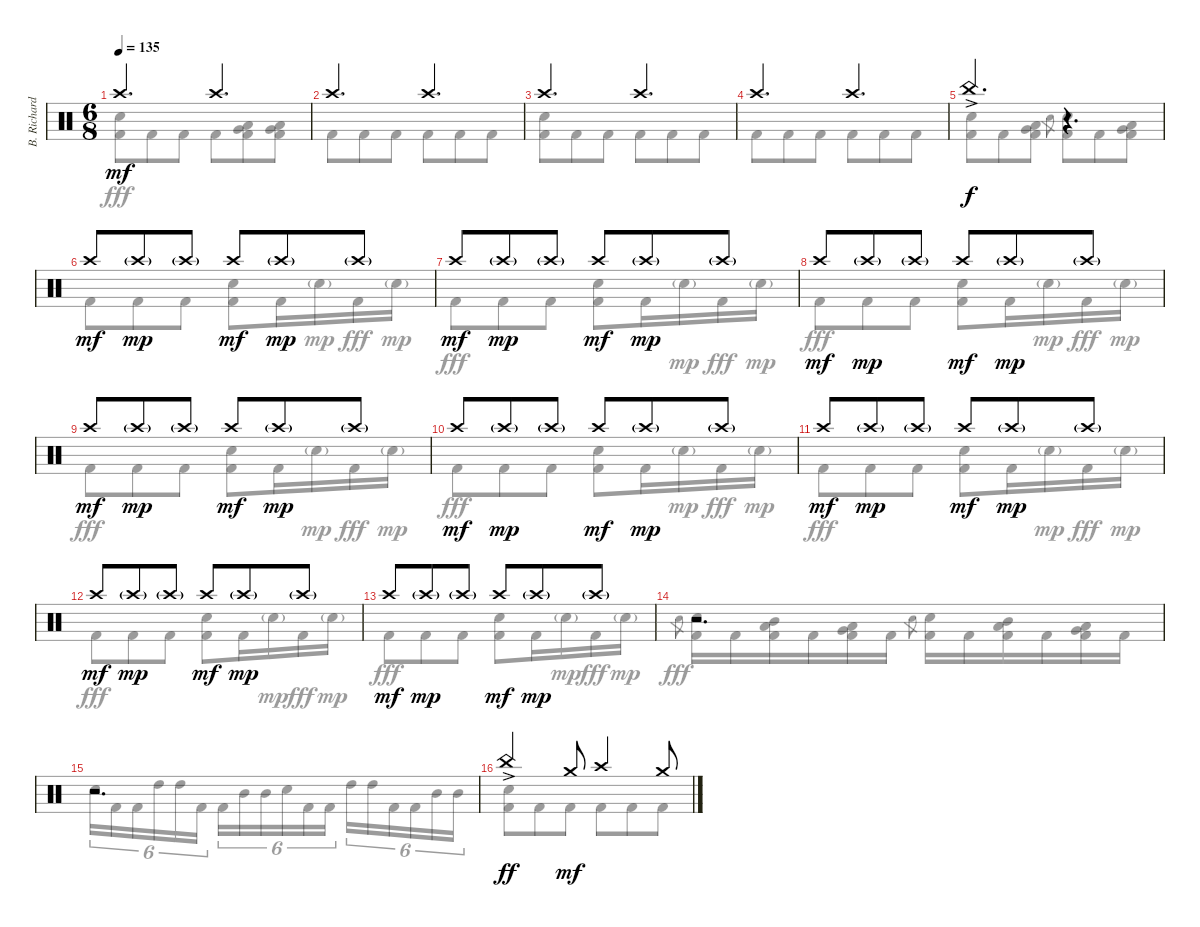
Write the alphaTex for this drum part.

\track ("B. Richardson Drums" "B. Richard") {instrument percussion}
\staff {score}
\articulation defaults
\voice
\ts (6 8)
\tempo 135
\clef neutral
\ks c "Crash high (hit)".4{d dy mf} "Crash high (hit)".4{d}
|
"Crash high (hit)".4{d} "Crash high (hit)".4{d} |
"Crash high (hit)".4{d} "Crash high (hit)".4{d} |
"Crash high (hit)".4{d} "Crash high (hit)".4{d} |
"China (hit)"{ac}.4{d dy f} r.4{d} |
"Crash high (hit)".8{dy mf} "Crash high (hit)"{g}.8{dy mp} "Crash high (hit)"{g}.8 "Crash high (hit)".8{dy mf} "Crash high (hit)"{g}.8{dy mp} "Crash high (hit)"{g}.8 |
"Crash high (hit)".8{dy mf} "Crash high (hit)"{g}.8{dy mp} "Crash high (hit)"{g}.8 "Crash high (hit)".8{dy mf} "Crash high (hit)"{g}.8{dy mp} "Crash high (hit)"{g}.8 |
"Crash high (hit)".8{dy mf} "Crash high (hit)"{g}.8{dy mp} "Crash high (hit)"{g}.8 "Crash high (hit)".8{dy mf} "Crash high (hit)"{g}.8{dy mp} "Crash high (hit)"{g}.8 |
"Crash high (hit)".8{dy mf} "Crash high (hit)"{g}.8{dy mp} "Crash high (hit)"{g}.8 "Crash high (hit)".8{dy mf} "Crash high (hit)"{g}.8{dy mp} "Crash high (hit)"{g}.8 |
"Crash high (hit)".8{dy mf} "Crash high (hit)"{g}.8{dy mp} "Crash high (hit)"{g}.8 "Crash high (hit)".8{dy mf} "Crash high (hit)"{g}.8{dy mp} "Crash high (hit)"{g}.8 |
"Crash high (hit)".8{dy mf} "Crash high (hit)"{g}.8{dy mp} "Crash high (hit)"{g}.8 "Crash high (hit)".8{dy mf} "Crash high (hit)"{g}.8{dy mp} "Crash high (hit)"{g}.8 |
"Crash high (hit)".8{dy mf} "Crash high (hit)"{g}.8{dy mp} "Crash high (hit)"{g}.8 "Crash high (hit)".8{dy mf} "Crash high (hit)"{g}.8{dy mp} "Crash high (hit)"{g}.8 |
"Crash high (hit)".8{dy mf} "Crash high (hit)"{g}.8{dy mp} "Crash high (hit)"{g}.8 "Crash high (hit)".8{dy mf} "Crash high (hit)"{g}.8{dy mp} "Crash high (hit)"{g}.8 |
r.2{d} |
r.2{d} |
"China (hit)"{ac}.4{dy ff} "Crash medium (hit)".8{dy mf} "Crash high (hit)".4 "Crash medium (hit)".8
\voice
\clef neutral
\ottava regular
\simile none
\ks c
("Electric Snare (hit)" "Kick (hit) 2").8{dy fff} "Kick (hit) 2".8 "Kick (hit) 2".8 "Kick (hit) 2".8 ("Low Tom (hit)" "Very Low Tom (hit)" "Kick (hit) 2").8 ("Low Tom (hit)" "Very Low Tom (hit)" "Kick (hit) 2").8 |
"Kick (hit) 2".8 "Kick (hit) 2".8 "Kick (hit) 2".8 "Kick (hit) 2".8 "Kick (hit) 2".8 "Kick (hit) 2".8 |
("Electric Snare (hit)" "Kick (hit) 2").8 "Kick (hit) 2".8 "Kick (hit) 2".8 "Kick (hit) 2".8 "Kick (hit) 2".8 "Kick (hit) 2".8 |
"Kick (hit) 2".8 "Kick (hit) 2".8 "Kick (hit) 2".8 "Kick (hit) 2".8 "Kick (hit) 2".8 "Kick (hit) 2".8 |
("Electric Snare (hit)" "Kick (hit) 2").8 "Kick (hit) 2".8 ("Low Tom (hit)" "Very Low Tom (hit)" "Kick (hit) 2").8 "Electric Snare (hit)".8{gr} ("Electric Snare (hit)" "Kick (hit) 2").8 "Kick (hit) 2".8 ("Low Tom (hit)" "Very Low Tom (hit)" "Kick (hit) 2").8 |
"Kick (hit) 2".8 "Kick (hit) 2".8 "Kick (hit) 2".8 ("Electric Snare (hit)" "Kick (hit) 2").8 "Kick (hit) 2".16 "Electric Snare (hit)"{g}.16{dy mp} "Kick (hit) 2".16{dy fff} "Electric Snare (hit)"{g}.16{dy mp} |
"Kick (hit) 2".8{dy fff} "Kick (hit) 2".8 "Kick (hit) 2".8 ("Electric Snare (hit)" "Kick (hit) 2").8 "Kick (hit) 2".16 "Electric Snare (hit)"{g}.16{dy mp} "Kick (hit) 2".16{dy fff} "Electric Snare (hit)"{g}.16{dy mp} |
"Kick (hit) 2".8{dy fff} "Kick (hit) 2".8 "Kick (hit) 2".8 ("Electric Snare (hit)" "Kick (hit) 2").8 "Kick (hit) 2".16 "Electric Snare (hit)"{g}.16{dy mp} "Kick (hit) 2".16{dy fff} "Electric Snare (hit)"{g}.16{dy mp} |
"Kick (hit) 2".8{dy fff} "Kick (hit) 2".8 "Kick (hit) 2".8 ("Electric Snare (hit)" "Kick (hit) 2").8 "Kick (hit) 2".16 "Electric Snare (hit)"{g}.16{dy mp} "Kick (hit) 2".16{dy fff} "Electric Snare (hit)"{g}.16{dy mp} |
"Kick (hit) 2".8{dy fff} "Kick (hit) 2".8 "Kick (hit) 2".8 ("Electric Snare (hit)" "Kick (hit) 2").8 "Kick (hit) 2".16 "Electric Snare (hit)"{g}.16{dy mp} "Kick (hit) 2".16{dy fff} "Electric Snare (hit)"{g}.16{dy mp} |
"Kick (hit) 2".8{dy fff} "Kick (hit) 2".8 "Kick (hit) 2".8 ("Electric Snare (hit)" "Kick (hit) 2").8 "Kick (hit) 2".16 "Electric Snare (hit)"{g}.16{dy mp} "Kick (hit) 2".16{dy fff} "Electric Snare (hit)"{g}.16{dy mp} |
"Kick (hit) 2".8{dy fff} "Kick (hit) 2".8 "Kick (hit) 2".8 ("Electric Snare (hit)" "Kick (hit) 2").8 "Kick (hit) 2".16 "Electric Snare (hit)"{g}.16{dy mp} "Kick (hit) 2".16{dy fff} "Electric Snare (hit)"{g}.16{dy mp} |
"Kick (hit) 2".8{dy fff} "Kick (hit) 2".8 "Kick (hit) 2".8 ("Electric Snare (hit)" "Kick (hit) 2").8 "Kick (hit) 2".16 "Electric Snare (hit)"{g}.16{dy mp} "Kick (hit) 2".16{dy fff} "Electric Snare (hit)"{g}.16{dy mp} |
"Electric Snare (hit)".8{gr dy fff} ("Electric Snare (hit)" "Kick (hit) 2").16 "Kick (hit) 2".16 ("Mid Tom (hit)" "Low Tom (hit)" "Kick (hit) 2").16 "Kick (hit) 2".16 ("Low Tom (hit)" "Very Low Tom (hit)" "Kick (hit) 2").16 "Kick (hit) 2".16 "Electric Snare (hit)".8{gr} ("Electric Snare (hit)" "Kick (hit) 2").16 "Kick (hit) 2".16 ("Mid Tom (hit)" "Low Tom (hit)" "Kick (hit) 2").16 "Kick (hit) 2".16 ("Low Tom (hit)" "Very Low Tom (hit)" "Kick (hit) 2").16 "Kick (hit) 2".16 |
"Electric Snare (hit)".16{tu (6 4)} "Kick (hit) 2".16{tu (6 4)} "Kick (hit) 2".16{tu (6 4)} "High Tom (hit)".16{tu (6 4)} "High Tom (hit)".16{tu (6 4)} "Kick (hit) 2".16{tu (6 4)} "Kick (hit) 2".16{tu (6 4)} "Mid Tom (hit)".16{tu (6 4)} "Mid Tom (hit)".16{tu (6 4)} "Electric Snare (hit)".16{tu (6 4)} "Kick (hit) 2".16{tu (6 4)} "Kick (hit) 2".16{tu (6 4)} "High Tom (hit)".16{tu (6 4)} "High Tom (hit)".16{tu (6 4)} "Kick (hit) 2".16{tu (6 4)} "Kick (hit) 2".16{tu (6 4)} "Mid Tom (hit)".16{tu (6 4)} "Mid Tom (hit)".16{tu (6 4)} |
("Electric Snare (hit)" "Kick (hit) 2").8 "Kick (hit) 2".8 "Kick (hit) 2".8 "Kick (hit) 2".8 "Kick (hit) 2".8 "Kick (hit) 2".8
